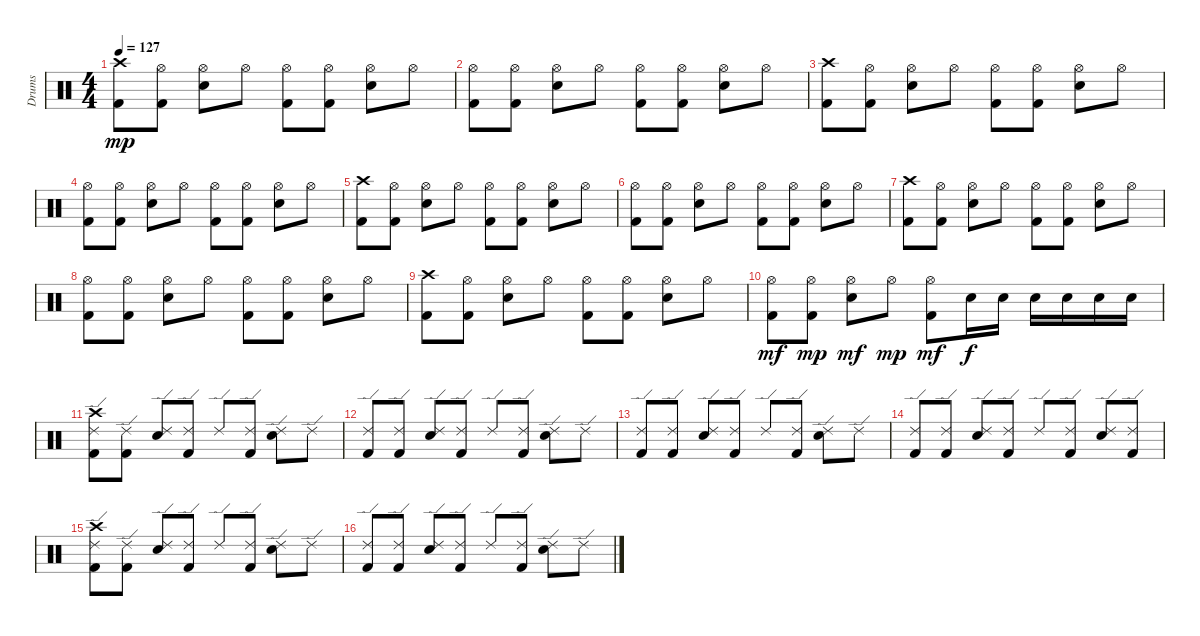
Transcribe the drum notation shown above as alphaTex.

\track ("Drums" "Drums") {instrument percussion}
\staff {score}
\articulation defaults
\ts (4 4)
\tempo 127
\clef neutral
\ks c
("Crash high (hit)" "Kick (hit) 2").8{dy mp} ("Hi-Hat (open)" "Kick (hit) 2").8 ("Hi-Hat (open)" "Electric Snare (hit)").8 "Hi-Hat (open)".8 ("Hi-Hat (open)" "Kick (hit) 2").8 ("Hi-Hat (open)" "Kick (hit) 2").8 ("Hi-Hat (open)" "Electric Snare (hit)").8 "Hi-Hat (open)".8 |
("Hi-Hat (open)" "Kick (hit) 2").8 ("Hi-Hat (open)" "Kick (hit) 2").8 ("Hi-Hat (open)" "Electric Snare (hit)").8 "Hi-Hat (open)".8 ("Hi-Hat (open)" "Kick (hit) 2").8 ("Hi-Hat (open)" "Kick (hit) 2").8 ("Hi-Hat (open)" "Electric Snare (hit)").8 "Hi-Hat (open)".8 |
("Crash high (hit)" "Kick (hit) 2").8 ("Hi-Hat (open)" "Kick (hit) 2").8 ("Hi-Hat (open)" "Electric Snare (hit)").8 "Hi-Hat (open)".8 ("Hi-Hat (open)" "Kick (hit) 2").8 ("Hi-Hat (open)" "Kick (hit) 2").8 ("Hi-Hat (open)" "Electric Snare (hit)").8 "Hi-Hat (open)".8 |
("Hi-Hat (open)" "Kick (hit) 2").8 ("Hi-Hat (open)" "Kick (hit) 2").8 ("Hi-Hat (open)" "Electric Snare (hit)").8 "Hi-Hat (open)".8 ("Hi-Hat (open)" "Kick (hit) 2").8 ("Hi-Hat (open)" "Kick (hit) 2").8 ("Hi-Hat (open)" "Electric Snare (hit)").8 "Hi-Hat (open)".8 |
("Crash high (hit)" "Kick (hit) 2").8 ("Hi-Hat (open)" "Kick (hit) 2").8 ("Hi-Hat (open)" "Electric Snare (hit)").8 "Hi-Hat (open)".8 ("Hi-Hat (open)" "Kick (hit) 2").8 ("Hi-Hat (open)" "Kick (hit) 2").8 ("Hi-Hat (open)" "Electric Snare (hit)").8 "Hi-Hat (open)".8 |
("Hi-Hat (open)" "Kick (hit) 2").8 ("Hi-Hat (open)" "Kick (hit) 2").8 ("Hi-Hat (open)" "Electric Snare (hit)").8 "Hi-Hat (open)".8 ("Hi-Hat (open)" "Kick (hit) 2").8 ("Hi-Hat (open)" "Kick (hit) 2").8 ("Hi-Hat (open)" "Electric Snare (hit)").8 "Hi-Hat (open)".8 |
("Crash high (hit)" "Kick (hit) 2").8 ("Hi-Hat (open)" "Kick (hit) 2").8 ("Hi-Hat (open)" "Electric Snare (hit)").8 "Hi-Hat (open)".8 ("Hi-Hat (open)" "Kick (hit) 2").8 ("Hi-Hat (open)" "Kick (hit) 2").8 ("Hi-Hat (open)" "Electric Snare (hit)").8 "Hi-Hat (open)".8 |
("Hi-Hat (open)" "Kick (hit) 2").8 ("Hi-Hat (open)" "Kick (hit) 2").8 ("Hi-Hat (open)" "Electric Snare (hit)").8 "Hi-Hat (open)".8 ("Hi-Hat (open)" "Kick (hit) 2").8 ("Hi-Hat (open)" "Kick (hit) 2").8 ("Hi-Hat (open)" "Electric Snare (hit)").8 "Hi-Hat (open)".8 |
("Crash high (hit)" "Kick (hit) 2").8 ("Hi-Hat (open)" "Kick (hit) 2").8 ("Hi-Hat (open)" "Electric Snare (hit)").8 "Hi-Hat (open)".8 ("Hi-Hat (open)" "Kick (hit) 2").8 ("Hi-Hat (open)" "Kick (hit) 2").8 ("Hi-Hat (open)" "Electric Snare (hit)").8 "Hi-Hat (open)".8 |
("Hi-Hat (open)" "Kick (hit) 2").8{dy mf} ("Hi-Hat (open)" "Kick (hit) 2").8{dy mp} ("Hi-Hat (open)" "Electric Snare (hit)").8{dy mf} "Hi-Hat (open)".8{dy mp} ("Hi-Hat (open)" "Kick (hit) 2").8{dy mf} "Electric Snare (hit)".16{dy f} "Electric Snare (hit)".16 "Electric Snare (hit)".16 "Electric Snare (hit)".16 "Electric Snare (hit)".16 "Electric Snare (hit)".16 |
("Crash high (hit)" "Ride (edge) 2" "Kick (hit) 2").8 ("Ride (edge) 2" "Kick (hit) 2").8 ("Ride (edge) 2" "Electric Snare (hit)").8 ("Ride (edge) 2" "Kick (hit) 2").8 "Ride (edge) 2".8 ("Ride (edge) 2" "Kick (hit) 2").8 ("Ride (edge) 2" "Electric Snare (hit)").8 "Ride (edge) 2".8 |
("Ride (edge) 2" "Kick (hit) 2").8 ("Ride (edge) 2" "Kick (hit) 2").8 ("Ride (edge) 2" "Electric Snare (hit)").8 ("Ride (edge) 2" "Kick (hit) 2").8 "Ride (edge) 2".8 ("Ride (edge) 2" "Kick (hit) 2").8 ("Ride (edge) 2" "Electric Snare (hit)").8 "Ride (edge) 2".8 |
("Ride (edge) 2" "Kick (hit) 2").8 ("Ride (edge) 2" "Kick (hit) 2").8 ("Ride (edge) 2" "Electric Snare (hit)").8 ("Ride (edge) 2" "Kick (hit) 2").8 "Ride (edge) 2".8 ("Ride (edge) 2" "Kick (hit) 2").8 ("Ride (edge) 2" "Electric Snare (hit)").8 "Ride (edge) 2".8 |
("Ride (edge) 2" "Kick (hit) 2").8 ("Ride (edge) 2" "Kick (hit) 2").8 ("Ride (edge) 2" "Electric Snare (hit)").8 ("Ride (edge) 2" "Kick (hit) 2").8 "Ride (edge) 2".8 ("Ride (edge) 2" "Kick (hit) 2").8 ("Ride (edge) 2" "Electric Snare (hit)").8 ("Ride (edge) 2" "Kick (hit) 2").8 |
("Crash high (hit)" "Ride (edge) 2" "Kick (hit) 2").8 ("Ride (edge) 2" "Kick (hit) 2").8 ("Ride (edge) 2" "Electric Snare (hit)").8 ("Ride (edge) 2" "Kick (hit) 2").8 "Ride (edge) 2".8 ("Ride (edge) 2" "Kick (hit) 2").8 ("Ride (edge) 2" "Electric Snare (hit)").8 "Ride (edge) 2".8 |
("Ride (edge) 2" "Kick (hit) 2").8 ("Ride (edge) 2" "Kick (hit) 2").8 ("Ride (edge) 2" "Electric Snare (hit)").8 ("Ride (edge) 2" "Kick (hit) 2").8 "Ride (edge) 2".8 ("Ride (edge) 2" "Kick (hit) 2").8 ("Ride (edge) 2" "Electric Snare (hit)").8 "Ride (edge) 2".8
